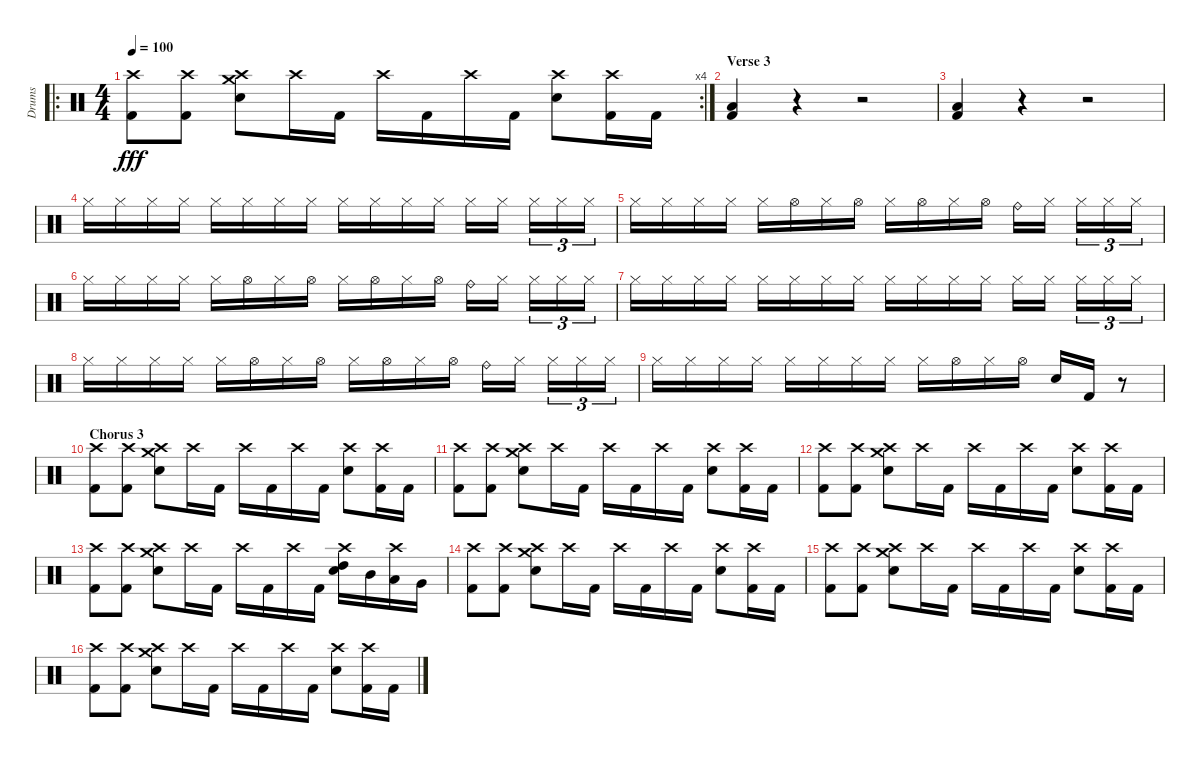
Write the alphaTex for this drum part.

\track ("Drums" "Drums") {instrument percussion}
\staff {score}
\articulation defaults
\ro
\rc 4
\ts (4 4)
\tempo 100
\clef neutral
\ks c
("Crash high (hit)" "Kick (hit) 2").8{dy fff} ("Crash high (hit)" "Kick (hit) 2").8 ("Crash high (hit)" "Crash medium (hit)" "Electric Snare (hit)").8 "Crash high (hit)".16 "Kick (hit) 2".16 "Crash high (hit)".16 "Kick (hit) 2".16 "Crash high (hit)".16 "Kick (hit) 2".16 ("Crash high (hit)" "Electric Snare (hit)").8 ("Crash high (hit)" "Kick (hit) 2").16 "Kick (hit) 2".16 |
\section ("" "Verse 3")
("Low Tom (hit)" "Kick (hit) 2").4 r.4 r.2 |
("Low Tom (hit)" "Kick (hit) 2").4 r.4 r.2 |
"Hi-Hat (closed)".16 "Hi-Hat (closed)".16 "Hi-Hat (closed)".16 "Hi-Hat (closed)".16 "Hi-Hat (closed)".16 "Hi-Hat (closed)".16 "Hi-Hat (closed)".16 "Hi-Hat (closed)".16 "Hi-Hat (closed)".16 "Hi-Hat (closed)".16 "Hi-Hat (closed)".16 "Hi-Hat (closed)".16 "Hi-Hat (closed)".16 "Hi-Hat (closed)".16 "Hi-Hat (closed)".16{tu (3 2)} "Hi-Hat (closed)".16{tu (3 2)} "Hi-Hat (closed)".16{tu (3 2)} |
"Hi-Hat (closed)".16 "Hi-Hat (closed)".16 "Hi-Hat (closed)".16 "Hi-Hat (closed)".16 "Hi-Hat (closed)".16 "Hi-Hat (open)".16 "Hi-Hat (closed)".16 "Hi-Hat (open)".16 "Hi-Hat (closed)".16 "Hi-Hat (open)".16 "Hi-Hat (closed)".16 "Hi-Hat (open)".16 "Ride (bell)".16 "Hi-Hat (closed)".16 "Hi-Hat (closed)".16{tu (3 2)} "Hi-Hat (closed)".16{tu (3 2)} "Hi-Hat (closed)".16{tu (3 2)} |
"Hi-Hat (closed)".16 "Hi-Hat (closed)".16 "Hi-Hat (closed)".16 "Hi-Hat (closed)".16 "Hi-Hat (closed)".16 "Hi-Hat (open)".16 "Hi-Hat (closed)".16 "Hi-Hat (open)".16 "Hi-Hat (closed)".16 "Hi-Hat (open)".16 "Hi-Hat (closed)".16 "Hi-Hat (open)".16 "Ride (bell)".16 "Hi-Hat (closed)".16 "Hi-Hat (closed)".16{tu (3 2)} "Hi-Hat (closed)".16{tu (3 2)} "Hi-Hat (closed)".16{tu (3 2)} |
"Hi-Hat (closed)".16 "Hi-Hat (closed)".16 "Hi-Hat (closed)".16 "Hi-Hat (closed)".16 "Hi-Hat (closed)".16 "Hi-Hat (closed)".16 "Hi-Hat (closed)".16 "Hi-Hat (closed)".16 "Hi-Hat (closed)".16 "Hi-Hat (closed)".16 "Hi-Hat (closed)".16 "Hi-Hat (closed)".16 "Hi-Hat (closed)".16 "Hi-Hat (closed)".16 "Hi-Hat (closed)".16{tu (3 2)} "Hi-Hat (closed)".16{tu (3 2)} "Hi-Hat (closed)".16{tu (3 2)} |
"Hi-Hat (closed)".16 "Hi-Hat (closed)".16 "Hi-Hat (closed)".16 "Hi-Hat (closed)".16 "Hi-Hat (closed)".16 "Hi-Hat (open)".16 "Hi-Hat (closed)".16 "Hi-Hat (open)".16 "Hi-Hat (closed)".16 "Hi-Hat (open)".16 "Hi-Hat (closed)".16 "Hi-Hat (open)".16 "Ride (bell)".16 "Hi-Hat (closed)".16 "Hi-Hat (closed)".16{tu (3 2)} "Hi-Hat (closed)".16{tu (3 2)} "Hi-Hat (closed)".16{tu (3 2)} |
"Hi-Hat (closed)".16 "Hi-Hat (closed)".16 "Hi-Hat (closed)".16 "Hi-Hat (closed)".16 "Hi-Hat (closed)".16 "Hi-Hat (closed)".16 "Hi-Hat (closed)".16 "Hi-Hat (closed)".16 "Hi-Hat (closed)".16 "Hi-Hat (open)".16 "Hi-Hat (closed)".16 "Hi-Hat (open)".16 "Electric Snare (hit)".16 "Kick (hit) 2".16 r.8 |
\section ("" "Chorus 3")
("Crash high (hit)" "Kick (hit) 2").8 ("Crash high (hit)" "Kick (hit) 2").8 ("Crash high (hit)" "Crash medium (hit)" "Electric Snare (hit)").8 "Crash high (hit)".16 "Kick (hit) 2".16 "Crash high (hit)".16 "Kick (hit) 2".16 "Crash high (hit)".16 "Kick (hit) 2".16 ("Crash high (hit)" "Electric Snare (hit)").8 ("Crash high (hit)" "Kick (hit) 2").16 "Kick (hit) 2".16 |
("Crash high (hit)" "Kick (hit) 2").8 ("Crash high (hit)" "Kick (hit) 2").8 ("Crash high (hit)" "Crash medium (hit)" "Electric Snare (hit)").8 "Crash high (hit)".16 "Kick (hit) 2".16 "Crash high (hit)".16 "Kick (hit) 2".16 "Crash high (hit)".16 "Kick (hit) 2".16 ("Crash high (hit)" "Electric Snare (hit)").8 ("Crash high (hit)" "Kick (hit) 2").16 "Kick (hit) 2".16 |
("Crash high (hit)" "Kick (hit) 2").8 ("Crash high (hit)" "Kick (hit) 2").8 ("Crash high (hit)" "Crash medium (hit)" "Electric Snare (hit)").8 "Crash high (hit)".16 "Kick (hit) 2".16 "Crash high (hit)".16 "Kick (hit) 2".16 "Crash high (hit)".16 "Kick (hit) 2".16 ("Crash high (hit)" "Electric Snare (hit)").8 ("Crash high (hit)" "Kick (hit) 2").16 "Kick (hit) 2".16 |
("Crash high (hit)" "Kick (hit) 2").8 ("Crash high (hit)" "Kick (hit) 2").8 ("Crash high (hit)" "Crash medium (hit)" "Electric Snare (hit)").8 "Crash high (hit)".16 "Kick (hit) 2".16 "Crash high (hit)".16 "Kick (hit) 2".16 "Crash high (hit)".16 "Kick (hit) 2".16 ("Crash high (hit)" "High Tom (hit)" "Electric Snare (hit)").16 "Mid Tom (hit)".16 ("Crash high (hit)" "Low Tom (hit)").16 "Very Low Tom (hit)".16 |
("Crash high (hit)" "Kick (hit) 2").8 ("Crash high (hit)" "Kick (hit) 2").8 ("Crash high (hit)" "Crash medium (hit)" "Electric Snare (hit)").8 "Crash high (hit)".16 "Kick (hit) 2".16 "Crash high (hit)".16 "Kick (hit) 2".16 "Crash high (hit)".16 "Kick (hit) 2".16 ("Crash high (hit)" "Electric Snare (hit)").8 ("Crash high (hit)" "Kick (hit) 2").16 "Kick (hit) 2".16 |
("Crash high (hit)" "Kick (hit) 2").8 ("Crash high (hit)" "Kick (hit) 2").8 ("Crash high (hit)" "Crash medium (hit)" "Electric Snare (hit)").8 "Crash high (hit)".16 "Kick (hit) 2".16 "Crash high (hit)".16 "Kick (hit) 2".16 "Crash high (hit)".16 "Kick (hit) 2".16 ("Crash high (hit)" "Electric Snare (hit)").8 ("Crash high (hit)" "Kick (hit) 2").16 "Kick (hit) 2".16 |
("Crash high (hit)" "Kick (hit) 2").8 ("Crash high (hit)" "Kick (hit) 2").8 ("Crash high (hit)" "Crash medium (hit)" "Electric Snare (hit)").8 "Crash high (hit)".16 "Kick (hit) 2".16 "Crash high (hit)".16 "Kick (hit) 2".16 "Crash high (hit)".16 "Kick (hit) 2".16 ("Crash high (hit)" "Electric Snare (hit)").8 ("Crash high (hit)" "Kick (hit) 2").16 "Kick (hit) 2".16
